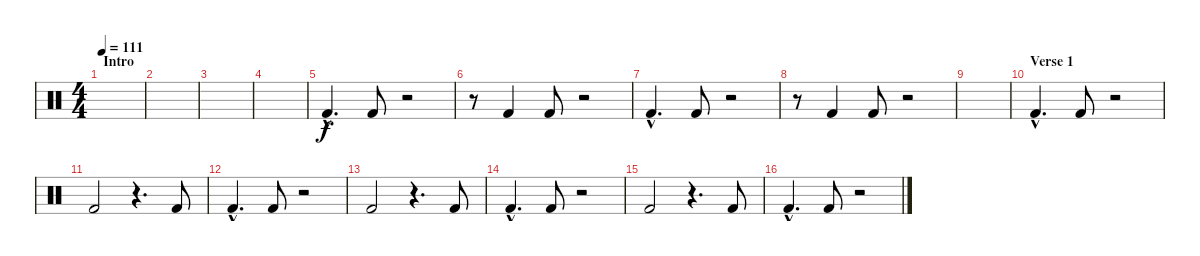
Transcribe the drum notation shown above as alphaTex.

\track "" {instrument percussion}
\staff {score}
\articulation defaults
\ts (4 4)
\section ("" "Intro")
\tempo 111
\clef neutral
\ks c
|
|
|
|
"Kick (hit) 2"{hac}.4{d} "Kick (hit) 2".8 r.2 |
r.8 "Kick (hit) 2".4 "Kick (hit) 2".8 r.2 |
"Kick (hit) 2"{hac}.4{d} "Kick (hit) 2".8 r.2 |
r.8 "Kick (hit) 2".4 "Kick (hit) 2".8 r.2 |
|
\section ("" "Verse 1")
"Kick (hit) 2"{hac}.4{d} "Kick (hit) 2".8 r.2 |
"Kick (hit) 2".2 r.4{d} "Kick (hit) 2".8 |
"Kick (hit) 2"{hac}.4{d} "Kick (hit) 2".8 r.2 |
"Kick (hit) 2".2 r.4{d} "Kick (hit) 2".8 |
"Kick (hit) 2"{hac}.4{d} "Kick (hit) 2".8 r.2 |
"Kick (hit) 2".2 r.4{d} "Kick (hit) 2".8 |
"Kick (hit) 2"{hac}.4{d} "Kick (hit) 2".8 r.2
